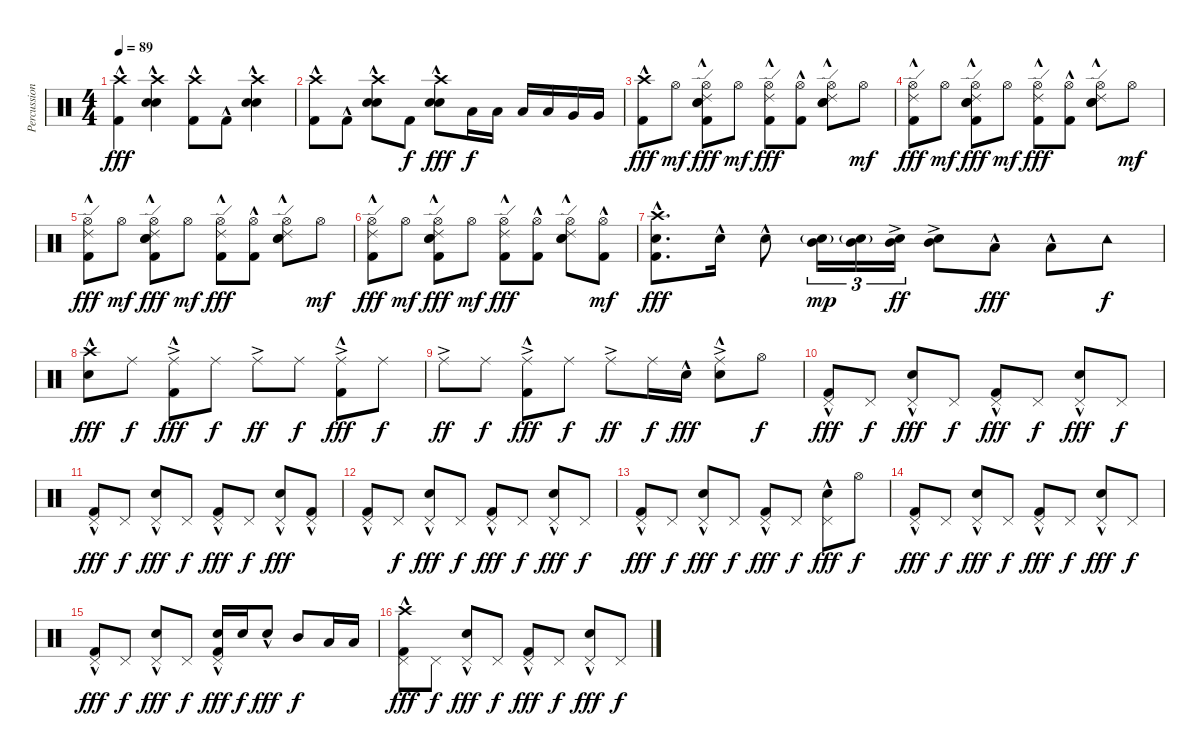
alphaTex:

\track ("Percussion" "Percussion") {instrument percussion}
\staff {score}
\articulation defaults
\ts (4 4)
\tempo 89
\clef neutral
\ks c
("Crash high (hit)" "Kick (hit) 2"{hac}).4{dy fff} ("Crash high (hit)" "Snare (hit) 2" "Electric Snare (hit)"{hac}).4 ("Crash high (hit)" "Kick (hit) 2"{hac}).8 "Kick (hit) 2"{hac}.8 ("Crash high (hit)" "Snare (hit) 2" "Electric Snare (hit)"{hac}).4 |
("Crash high (hit)" "Kick (hit) 2"{hac}).8 "Kick (hit) 2"{hac}.8 ("Crash high (hit)" "Snare (hit) 2" "Electric Snare (hit)"{hac}).8 "Kick (hit) 2".8{dy f} ("Crash high (hit)" "Snare (hit) 2" "Electric Snare (hit)"{hac}).8{dy fff} "Low Floor Tom (hit)".16{dy f} "Low Floor Tom (hit)".16 "Low Floor Tom (hit)".16 "Low Floor Tom (hit)".16 "Very Low Tom (hit)".16 "Very Low Tom (hit)".16 |
("Crash high (hit)" "Kick (hit) 2"{hac}).8{dy fff} "Hi-Hat (open)".8{dy mf} ("Snare (hit) 2" "Ride (edge) 2" "Hi-Hat (open)" "Electric Snare (hit)"{hac} "Kick (hit) 2"{hac}).8{dy fff} "Hi-Hat (open)".8{dy mf} ("Ride (edge) 2" "Hi-Hat (open)" "Kick (hit) 2"{hac}).8{dy fff} ("Hi-Hat (open)" "Kick (hit) 2"{hac}).8 ("Snare (hit) 2" "Ride (edge) 2" "Hi-Hat (open)" "Electric Snare (hit)"{hac}).8 "Hi-Hat (open)".8{dy mf} |
("Ride (edge) 2" "Hi-Hat (open)" "Kick (hit) 2"{hac}).8{dy fff} "Hi-Hat (open)".8{dy mf} ("Snare (hit) 2" "Ride (edge) 2" "Hi-Hat (open)" "Electric Snare (hit)"{hac} "Kick (hit) 2"{hac}).8{dy fff} "Hi-Hat (open)".8{dy mf} ("Ride (edge) 2" "Hi-Hat (open)" "Kick (hit) 2"{hac}).8{dy fff} ("Hi-Hat (open)" "Kick (hit) 2"{hac}).8 ("Snare (hit) 2" "Ride (edge) 2" "Hi-Hat (open)" "Electric Snare (hit)"{hac}).8 "Hi-Hat (open)".8{dy mf} |
("Ride (edge) 2" "Hi-Hat (open)" "Kick (hit) 2"{hac}).8{dy fff} "Hi-Hat (open)".8{dy mf} ("Snare (hit) 2" "Ride (edge) 2" "Hi-Hat (open)" "Electric Snare (hit)"{hac} "Kick (hit) 2"{hac}).8{dy fff} "Hi-Hat (open)".8{dy mf} ("Ride (edge) 2" "Hi-Hat (open)" "Kick (hit) 2"{hac}).8{dy fff} ("Hi-Hat (open)" "Kick (hit) 2"{hac}).8 ("Snare (hit) 2" "Ride (edge) 2" "Hi-Hat (open)" "Electric Snare (hit)"{hac}).8 "Hi-Hat (open)".8{dy mf} |
("Ride (edge) 2" "Hi-Hat (open)" "Kick (hit) 2"{hac}).8{dy fff} "Hi-Hat (open)".8{dy mf} ("Snare (hit) 2" "Ride (edge) 2" "Hi-Hat (open)" "Electric Snare (hit)"{hac} "Kick (hit) 2"{hac}).8{dy fff} "Hi-Hat (open)".8{dy mf} ("Ride (edge) 2" "Hi-Hat (open)" "Kick (hit) 2"{hac}).8{dy fff} ("Hi-Hat (open)" "Kick (hit) 2"{hac}).8 ("Snare (hit) 2" "Ride (edge) 2" "Hi-Hat (open)" "Electric Snare (hit)"{hac}).8 ("Hi-Hat (open)" "Kick (hit) 2"{hac}).8{dy mf} |
("Crash high (hit)" "Electric Snare (hit)" "Kick (hit) 2"{hac}).8{d dy fff} "Electric Snare (hit)"{hac}.16 "Electric Snare (hit)"{hac}.8 ("Electric Snare (hit)"{g} "Mid Tom (hit)").16{tu (3 2) dy mp} ("Electric Snare (hit)"{g} "Mid Tom (hit)").16{tu (3 2)} ("Electric Snare (hit)" "Mid Tom (hit)"{ac}).16{tu (3 2) dy ff} ("Electric Snare (hit)" "Mid Tom (hit)"{ac}).8 "Low Tom (hit)"{hac}.8{dy fff} "Low Tom (hit)"{hac}.8 "Tambourine (hit)".8{dy f} |
("Crash high (hit)"{hac} "Snare (hit) 2").8{dy fff} "Ride (middle)".8{dy f} ("Ride (middle)"{ac} "Kick (hit) 2"{hac}).8{dy fff} "Ride (middle)".8{dy f} "Ride (middle)"{ac}.8{dy ff} "Ride (middle)".8{dy f} ("Ride (middle)"{ac} "Kick (hit) 2"{hac}).8{dy fff} "Ride (middle)".8{dy f} |
"Ride (middle)"{ac}.8{dy ff} "Ride (middle)".8{dy f} ("Ride (middle)"{ac} "Kick (hit) 2"{hac}).8{dy fff} "Ride (middle)".8{dy f} "Ride (middle)"{ac}.8{dy ff} "Ride (middle)".16{dy f} "Electric Snare (hit)"{hac}.16{dy fff} ("Ride (middle)"{ac} "Electric Snare (hit)"{hac}).8 "Hi-Hat (open)".8{dy f} |
("Pedal Hi-Hat (hit)" "Kick (hit) 2"{hac}).8{dy fff} "Pedal Hi-Hat (hit)".8{dy f} ("Pedal Hi-Hat (hit)" "Electric Snare (hit)"{hac}).8{dy fff} "Pedal Hi-Hat (hit)".8{dy f} ("Pedal Hi-Hat (hit)" "Kick (hit) 2"{hac}).8{dy fff} "Pedal Hi-Hat (hit)".8{dy f} ("Pedal Hi-Hat (hit)" "Electric Snare (hit)"{hac}).8{dy fff} "Pedal Hi-Hat (hit)".8{dy f} |
("Pedal Hi-Hat (hit)" "Kick (hit) 2"{hac}).8{dy fff} "Pedal Hi-Hat (hit)".8{dy f} ("Pedal Hi-Hat (hit)" "Electric Snare (hit)"{hac}).8{dy fff} "Pedal Hi-Hat (hit)".8{dy f} ("Pedal Hi-Hat (hit)" "Kick (hit) 2"{hac}).8{dy fff} "Pedal Hi-Hat (hit)".8{dy f} ("Pedal Hi-Hat (hit)" "Electric Snare (hit)"{hac}).8{dy fff} ("Pedal Hi-Hat (hit)" "Kick (hit) 2"{hac}).8 |
("Pedal Hi-Hat (hit)" "Kick (hit) 2"{hac}).8 "Pedal Hi-Hat (hit)".8{dy f} ("Pedal Hi-Hat (hit)" "Electric Snare (hit)"{hac}).8{dy fff} "Pedal Hi-Hat (hit)".8{dy f} ("Pedal Hi-Hat (hit)" "Kick (hit) 2"{hac}).8{dy fff} "Pedal Hi-Hat (hit)".8{dy f} ("Pedal Hi-Hat (hit)" "Electric Snare (hit)"{hac}).8{dy fff} "Pedal Hi-Hat (hit)".8{dy f} |
("Pedal Hi-Hat (hit)" "Kick (hit) 2"{hac}).8{dy fff} "Pedal Hi-Hat (hit)".8{dy f} ("Pedal Hi-Hat (hit)" "Electric Snare (hit)"{hac}).8{dy fff} "Pedal Hi-Hat (hit)".8{dy f} ("Pedal Hi-Hat (hit)" "Kick (hit) 2"{hac}).8{dy fff} "Pedal Hi-Hat (hit)".8{dy f} ("Pedal Hi-Hat (hit)" "Electric Snare (hit)"{hac}).8{dy fff} "Hi-Hat (open)".8{dy f} |
("Pedal Hi-Hat (hit)" "Kick (hit) 2"{hac}).8{dy fff} "Pedal Hi-Hat (hit)".8{dy f} ("Pedal Hi-Hat (hit)" "Electric Snare (hit)"{hac}).8{dy fff} "Pedal Hi-Hat (hit)".8{dy f} ("Pedal Hi-Hat (hit)" "Kick (hit) 2"{hac}).8{dy fff} "Pedal Hi-Hat (hit)".8{dy f} ("Pedal Hi-Hat (hit)" "Electric Snare (hit)"{hac}).8{dy fff} "Pedal Hi-Hat (hit)".8{dy f} |
("Pedal Hi-Hat (hit)" "Kick (hit) 2"{hac}).8{dy fff} "Pedal Hi-Hat (hit)".8{dy f} ("Pedal Hi-Hat (hit)" "Electric Snare (hit)"{hac}).8{dy fff} "Pedal Hi-Hat (hit)".8{dy f} ("Electric Snare (hit)" "Pedal Hi-Hat (hit)" "Kick (hit) 2"{hac}).16{dy fff} "Electric Snare (hit)".16{dy f} "Electric Snare (hit)"{hac}.8{dy fff} "Mid Tom (hit)".8{dy f} "Low Tom (hit)".16 "Low Tom (hit)".16 |
("Crash high (hit)" "Pedal Hi-Hat (hit)" "Kick (hit) 2"{hac}).8{dy fff} "Pedal Hi-Hat (hit)".8{dy f} ("Pedal Hi-Hat (hit)" "Electric Snare (hit)"{hac}).8{dy fff} "Pedal Hi-Hat (hit)".8{dy f} ("Pedal Hi-Hat (hit)" "Kick (hit) 2"{hac}).8{dy fff} "Pedal Hi-Hat (hit)".8{dy f} ("Pedal Hi-Hat (hit)" "Electric Snare (hit)"{hac}).8{dy fff} "Pedal Hi-Hat (hit)".8{dy f}
